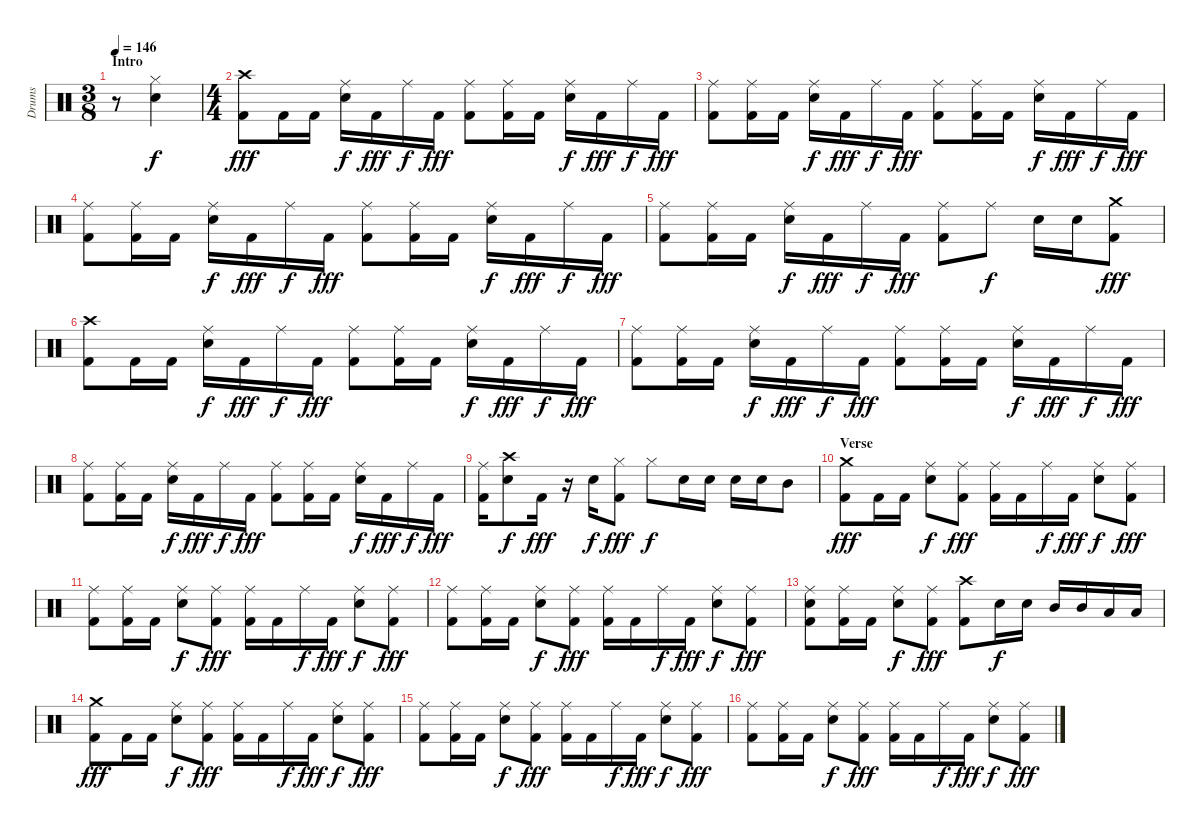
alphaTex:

\track ("Drums" "Drums") {instrument percussion}
\staff {score}
\articulation defaults
\ts (3 8)
\section ("" "Intro")
\tempo 146
\clef neutral
\ks c
r.8{dy f} ("Hi-Hat (closed)" "Snare (hit) 2").4 |
\ts (4 4)
("Crash high (hit)" "Kick (hit) 2").8{dy fff} "Kick (hit) 2".16 "Kick (hit) 2".16 ("Ride (middle)" "Snare (hit) 2").16{dy f} "Kick (hit) 2".16{dy fff} "Ride (middle)".16{dy f} "Kick (hit) 2".16{dy fff} ("Ride (middle)" "Kick (hit) 2").8 ("Ride (middle)" "Kick (hit) 2").16 "Kick (hit) 2".16 ("Ride (middle)" "Snare (hit) 2").16{dy f} "Kick (hit) 2".16{dy fff} "Ride (middle)".16{dy f} "Kick (hit) 2".16{dy fff} |
("Ride (middle)" "Kick (hit) 2").8 ("Ride (middle)" "Kick (hit) 2").16 "Kick (hit) 2".16 ("Ride (middle)" "Snare (hit) 2").16{dy f} "Kick (hit) 2".16{dy fff} "Ride (middle)".16{dy f} "Kick (hit) 2".16{dy fff} ("Ride (middle)" "Kick (hit) 2").8 ("Ride (middle)" "Kick (hit) 2").16 "Kick (hit) 2".16 ("Ride (middle)" "Snare (hit) 2").16{dy f} "Kick (hit) 2".16{dy fff} "Ride (middle)".16{dy f} "Kick (hit) 2".16{dy fff} |
("Ride (middle)" "Kick (hit) 2").8 ("Ride (middle)" "Kick (hit) 2").16 "Kick (hit) 2".16 ("Ride (middle)" "Snare (hit) 2").16{dy f} "Kick (hit) 2".16{dy fff} "Ride (middle)".16{dy f} "Kick (hit) 2".16{dy fff} ("Ride (middle)" "Kick (hit) 2").8 ("Ride (middle)" "Kick (hit) 2").16 "Kick (hit) 2".16 ("Ride (middle)" "Snare (hit) 2").16{dy f} "Kick (hit) 2".16{dy fff} "Ride (middle)".16{dy f} "Kick (hit) 2".16{dy fff} |
("Ride (middle)" "Kick (hit) 2").8 ("Ride (middle)" "Kick (hit) 2").16 "Kick (hit) 2".16 ("Ride (middle)" "Snare (hit) 2").16{dy f} "Kick (hit) 2".16{dy fff} "Ride (middle)".16{dy f} "Kick (hit) 2".16{dy fff} ("Ride (middle)" "Kick (hit) 2").8 "Ride (middle)".8{dy f} "Snare (hit) 2".16 "Snare (hit) 2".16 ("Crash medium (hit)" "Kick (hit) 2").8{dy fff} |
("Crash high (hit)" "Kick (hit) 2").8 "Kick (hit) 2".16 "Kick (hit) 2".16 ("Ride (middle)" "Snare (hit) 2").16{dy f} "Kick (hit) 2".16{dy fff} "Ride (middle)".16{dy f} "Kick (hit) 2".16{dy fff} ("Ride (middle)" "Kick (hit) 2").8 ("Ride (middle)" "Kick (hit) 2").16 "Kick (hit) 2".16 ("Ride (middle)" "Snare (hit) 2").16{dy f} "Kick (hit) 2".16{dy fff} "Ride (middle)".16{dy f} "Kick (hit) 2".16{dy fff} |
("Ride (middle)" "Kick (hit) 2").8 ("Ride (middle)" "Kick (hit) 2").16 "Kick (hit) 2".16 ("Ride (middle)" "Snare (hit) 2").16{dy f} "Kick (hit) 2".16{dy fff} "Ride (middle)".16{dy f} "Kick (hit) 2".16{dy fff} ("Ride (middle)" "Kick (hit) 2").8 ("Ride (middle)" "Kick (hit) 2").16 "Kick (hit) 2".16 ("Ride (middle)" "Snare (hit) 2").16{dy f} "Kick (hit) 2".16{dy fff} "Ride (middle)".16{dy f} "Kick (hit) 2".16{dy fff} |
("Ride (middle)" "Kick (hit) 2").8 ("Ride (middle)" "Kick (hit) 2").16 "Kick (hit) 2".16 ("Ride (middle)" "Snare (hit) 2").16{dy f} "Kick (hit) 2".16{dy fff} "Ride (middle)".16{dy f} "Kick (hit) 2".16{dy fff} ("Ride (middle)" "Kick (hit) 2").8 ("Ride (middle)" "Kick (hit) 2").16 "Kick (hit) 2".16 ("Ride (middle)" "Snare (hit) 2").16{dy f} "Kick (hit) 2".16{dy fff} "Ride (middle)".16{dy f} "Kick (hit) 2".16{dy fff} |
("Ride (middle)" "Kick (hit) 2").16 ("Crash high (hit)" "Snare (hit) 2").8{dy f} "Kick (hit) 2".16{dy fff} r.16 "Snare (hit) 2".16{dy f} ("Hi-Hat (closed)" "Kick (hit) 2").8{dy fff} "Hi-Hat (closed)".8{dy f} "Snare (hit) 2".16 "Snare (hit) 2".16 "Snare (hit) 2".16 "Snare (hit) 2".16 "Mid Tom (hit)".8 |
\section ("" "Verse")
("Crash medium (hit)" "Kick (hit) 2").8{dy fff} "Kick (hit) 2".16 "Kick (hit) 2".16 ("Ride (middle)" "Snare (hit) 2").8{dy f} ("Ride (middle)" "Kick (hit) 2").8{dy fff} ("Ride (middle)" "Kick (hit) 2").16 "Kick (hit) 2".16 "Ride (middle)".16{dy f} "Kick (hit) 2".16{dy fff} ("Ride (middle)" "Snare (hit) 2").8{dy f} ("Ride (middle)" "Kick (hit) 2").8{dy fff} |
("Ride (middle)" "Kick (hit) 2").8 ("Ride (middle)" "Kick (hit) 2").16 "Kick (hit) 2".16 ("Ride (middle)" "Snare (hit) 2").8{dy f} ("Ride (middle)" "Kick (hit) 2").8{dy fff} ("Ride (middle)" "Kick (hit) 2").16 "Kick (hit) 2".16 "Ride (middle)".16{dy f} "Kick (hit) 2".16{dy fff} ("Ride (middle)" "Snare (hit) 2").8{dy f} ("Ride (middle)" "Kick (hit) 2").8{dy fff} |
("Ride (middle)" "Kick (hit) 2").8 ("Ride (middle)" "Kick (hit) 2").16 "Kick (hit) 2".16 ("Ride (middle)" "Snare (hit) 2").8{dy f} ("Ride (middle)" "Kick (hit) 2").8{dy fff} ("Ride (middle)" "Kick (hit) 2").16 "Kick (hit) 2".16 "Ride (middle)".16{dy f} "Kick (hit) 2".16{dy fff} ("Ride (middle)" "Snare (hit) 2").8{dy f} ("Ride (middle)" "Kick (hit) 2").8{dy fff} |
("Ride (middle)" "Snare (hit) 2" "Kick (hit) 2").8 ("Ride (middle)" "Kick (hit) 2").16 "Kick (hit) 2".16 ("Ride (middle)" "Snare (hit) 2").8{dy f} ("Ride (middle)" "Kick (hit) 2").8{dy fff} ("Crash high (hit)" "Kick (hit) 2").8 "Snare (hit) 2".16{dy f} "Snare (hit) 2".16 "Mid Tom (hit)".16 "Mid Tom (hit)".16 "Low Tom (hit)".16 "Low Tom (hit)".16 |
("Crash medium (hit)" "Kick (hit) 2").8{dy fff} "Kick (hit) 2".16 "Kick (hit) 2".16 ("Ride (middle)" "Snare (hit) 2").8{dy f} ("Ride (middle)" "Kick (hit) 2").8{dy fff} ("Ride (middle)" "Kick (hit) 2").16 "Kick (hit) 2".16 "Ride (middle)".16{dy f} "Kick (hit) 2".16{dy fff} ("Ride (middle)" "Snare (hit) 2").8{dy f} ("Ride (middle)" "Kick (hit) 2").8{dy fff} |
("Ride (middle)" "Kick (hit) 2").8 ("Ride (middle)" "Kick (hit) 2").16 "Kick (hit) 2".16 ("Ride (middle)" "Snare (hit) 2").8{dy f} ("Ride (middle)" "Kick (hit) 2").8{dy fff} ("Ride (middle)" "Kick (hit) 2").16 "Kick (hit) 2".16 "Ride (middle)".16{dy f} "Kick (hit) 2".16{dy fff} ("Ride (middle)" "Snare (hit) 2").8{dy f} ("Ride (middle)" "Kick (hit) 2").8{dy fff} |
("Ride (middle)" "Kick (hit) 2").8 ("Ride (middle)" "Kick (hit) 2").16 "Kick (hit) 2".16 ("Ride (middle)" "Snare (hit) 2").8{dy f} ("Ride (middle)" "Kick (hit) 2").8{dy fff} ("Ride (middle)" "Kick (hit) 2").16 "Kick (hit) 2".16 "Ride (middle)".16{dy f} "Kick (hit) 2".16{dy fff} ("Ride (middle)" "Snare (hit) 2").8{dy f} ("Ride (middle)" "Kick (hit) 2").8{dy fff}
